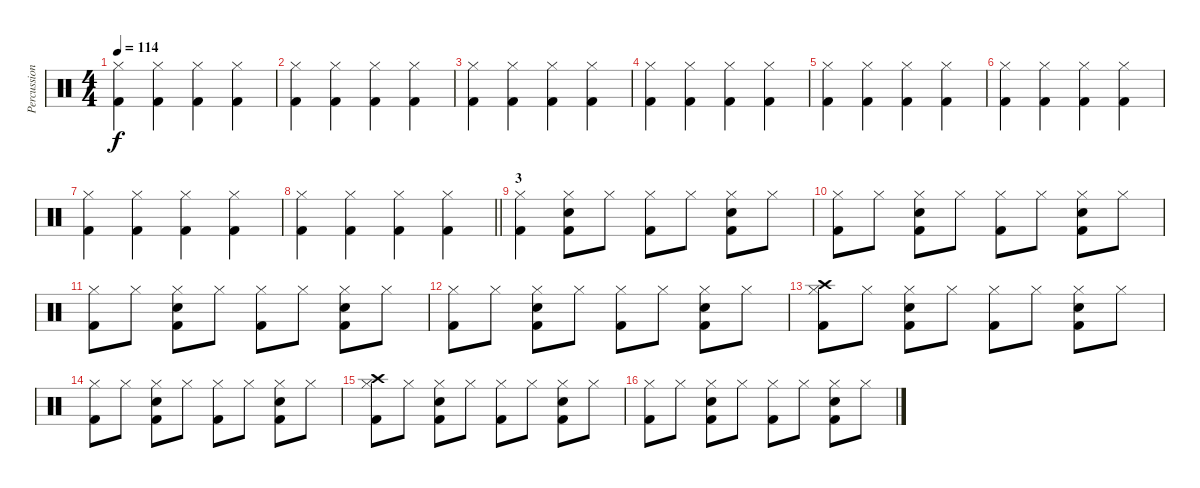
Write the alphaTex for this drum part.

\track ("Percussions" "Percussion") {instrument percussion}
\staff {score}
\articulation defaults
\ts (4 4)
\tempo 114
\clef neutral
\ks c
("Kick (hit) 2" "Hi-Hat (closed)").4{dy f} ("Kick (hit) 2" "Hi-Hat (closed)").4 ("Kick (hit) 2" "Hi-Hat (closed)").4 ("Kick (hit) 2" "Hi-Hat (closed)").4 |
("Kick (hit) 2" "Hi-Hat (closed)").4 ("Kick (hit) 2" "Hi-Hat (closed)").4 ("Kick (hit) 2" "Hi-Hat (closed)").4 ("Kick (hit) 2" "Hi-Hat (closed)").4 |
("Kick (hit) 2" "Hi-Hat (closed)").4 ("Kick (hit) 2" "Hi-Hat (closed)").4 ("Kick (hit) 2" "Hi-Hat (closed)").4 ("Kick (hit) 2" "Hi-Hat (closed)").4 |
("Kick (hit) 2" "Hi-Hat (closed)").4 ("Kick (hit) 2" "Hi-Hat (closed)").4 ("Kick (hit) 2" "Hi-Hat (closed)").4 ("Kick (hit) 2" "Hi-Hat (closed)").4 |
("Kick (hit) 2" "Hi-Hat (closed)").4 ("Kick (hit) 2" "Hi-Hat (closed)").4 ("Kick (hit) 2" "Hi-Hat (closed)").4 ("Kick (hit) 2" "Hi-Hat (closed)").4 |
("Kick (hit) 2" "Hi-Hat (closed)").4 ("Kick (hit) 2" "Hi-Hat (closed)").4 ("Kick (hit) 2" "Hi-Hat (closed)").4 ("Kick (hit) 2" "Hi-Hat (closed)").4 |
("Kick (hit) 2" "Hi-Hat (closed)").4 ("Kick (hit) 2" "Hi-Hat (closed)").4 ("Kick (hit) 2" "Hi-Hat (closed)").4 ("Kick (hit) 2" "Hi-Hat (closed)").4 |
\barLineRight lightlight
("Kick (hit) 2" "Hi-Hat (closed)").4 ("Kick (hit) 2" "Hi-Hat (closed)").4 ("Kick (hit) 2" "Hi-Hat (closed)").4 ("Kick (hit) 2" "Hi-Hat (closed)").4 |
\section ("" "3")
("Kick (hit) 2" "Hi-Hat (closed)").4 ("Kick (hit) 2" "Hi-Hat (closed)" "Snare (hit) 2").8 "Hi-Hat (closed)".8 ("Kick (hit) 2" "Hi-Hat (closed)").8 "Hi-Hat (closed)".8 ("Kick (hit) 2" "Hi-Hat (closed)" "Snare (hit) 2").8 "Hi-Hat (closed)".8 |
("Kick (hit) 2" "Hi-Hat (closed)").8 "Hi-Hat (closed)".8 ("Kick (hit) 2" "Hi-Hat (closed)" "Snare (hit) 2").8 "Hi-Hat (closed)".8 ("Kick (hit) 2" "Hi-Hat (closed)").8 "Hi-Hat (closed)".8 ("Kick (hit) 2" "Hi-Hat (closed)" "Snare (hit) 2").8 "Hi-Hat (closed)".8 |
("Kick (hit) 2" "Hi-Hat (closed)").8 "Hi-Hat (closed)".8 ("Kick (hit) 2" "Hi-Hat (closed)" "Snare (hit) 2").8 "Hi-Hat (closed)".8 ("Kick (hit) 2" "Hi-Hat (closed)").8 "Hi-Hat (closed)".8 ("Kick (hit) 2" "Hi-Hat (closed)" "Snare (hit) 2").8 "Hi-Hat (closed)".8 |
("Kick (hit) 2" "Hi-Hat (closed)").8 "Hi-Hat (closed)".8 ("Kick (hit) 2" "Hi-Hat (closed)" "Snare (hit) 2").8 "Hi-Hat (closed)".8 ("Kick (hit) 2" "Hi-Hat (closed)").8 "Hi-Hat (closed)".8 ("Kick (hit) 2" "Hi-Hat (closed)" "Snare (hit) 2").8 "Hi-Hat (closed)".8 |
("Kick (hit) 2" "Hi-Hat (closed)" "Crash high (hit)").8 "Hi-Hat (closed)".8 ("Kick (hit) 2" "Hi-Hat (closed)" "Snare (hit) 2").8 "Hi-Hat (closed)".8 ("Kick (hit) 2" "Hi-Hat (closed)").8 "Hi-Hat (closed)".8 ("Kick (hit) 2" "Hi-Hat (closed)" "Snare (hit) 2").8 "Hi-Hat (closed)".8 |
("Kick (hit) 2" "Hi-Hat (closed)").8 "Hi-Hat (closed)".8 ("Kick (hit) 2" "Hi-Hat (closed)" "Snare (hit) 2").8 "Hi-Hat (closed)".8 ("Kick (hit) 2" "Hi-Hat (closed)").8 "Hi-Hat (closed)".8 ("Kick (hit) 2" "Hi-Hat (closed)" "Snare (hit) 2").8 "Hi-Hat (closed)".8 |
("Kick (hit) 2" "Hi-Hat (closed)" "Crash high (hit)").8 "Hi-Hat (closed)".8 ("Kick (hit) 2" "Hi-Hat (closed)" "Snare (hit) 2").8 "Hi-Hat (closed)".8 ("Kick (hit) 2" "Hi-Hat (closed)").8 "Hi-Hat (closed)".8 ("Kick (hit) 2" "Hi-Hat (closed)" "Snare (hit) 2").8 "Hi-Hat (closed)".8 |
("Kick (hit) 2" "Hi-Hat (closed)").8 "Hi-Hat (closed)".8 ("Kick (hit) 2" "Hi-Hat (closed)" "Snare (hit) 2").8 "Hi-Hat (closed)".8 ("Kick (hit) 2" "Hi-Hat (closed)").8 "Hi-Hat (closed)".8 ("Kick (hit) 2" "Hi-Hat (closed)" "Snare (hit) 2").8 "Hi-Hat (closed)".8
